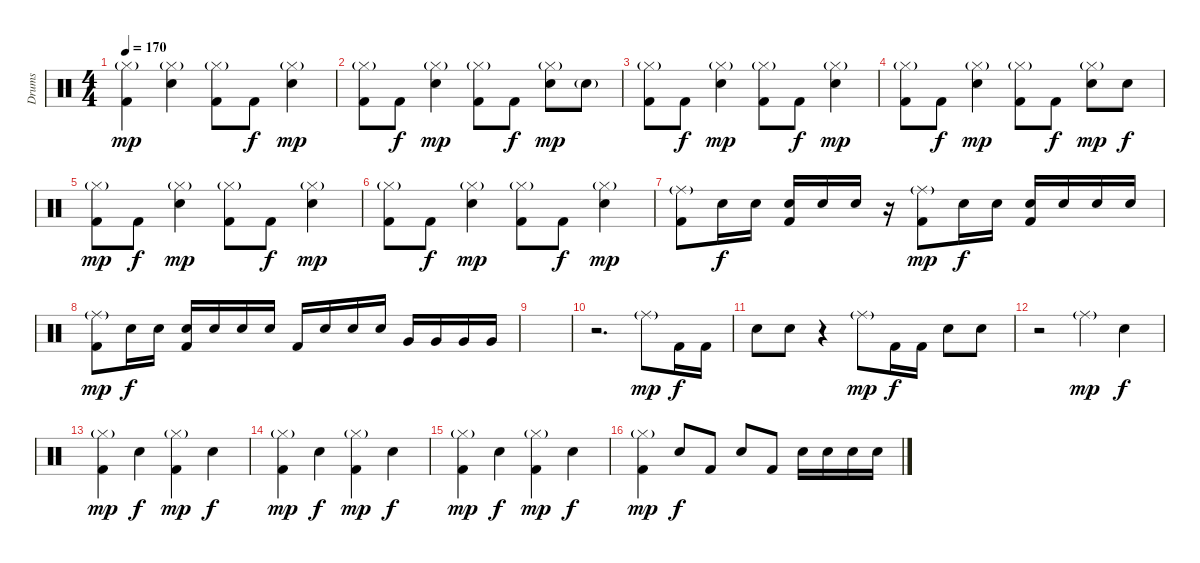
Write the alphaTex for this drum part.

\track ("Drums" "Drums") {instrument percussion}
\staff {score}
\articulation defaults
\ts (4 4)
\tempo 170
\clef neutral
\ks c
("Hi-Hat (closed)"{g} "Kick (hit) 2").4{dy mp} ("Hi-Hat (closed)"{g} "Electric Snare (hit)").4 ("Hi-Hat (closed)"{g} "Kick (hit) 2").8 "Kick (hit) 2".8{dy f} ("Hi-Hat (closed)"{g} "Electric Snare (hit)").4{dy mp} |
("Hi-Hat (closed)"{g} "Kick (hit) 2").8 "Kick (hit) 2".8{dy f} ("Hi-Hat (closed)"{g} "Electric Snare (hit)").4{dy mp} ("Hi-Hat (closed)"{g} "Kick (hit) 2").8 "Kick (hit) 2".8{dy f} ("Hi-Hat (closed)"{g} "Electric Snare (hit)").8{dy mp} "Electric Snare (hit)"{g}.8 |
("Hi-Hat (closed)"{g} "Kick (hit) 2").8 "Kick (hit) 2".8{dy f} ("Hi-Hat (closed)"{g} "Electric Snare (hit)").4{dy mp} ("Hi-Hat (closed)"{g} "Kick (hit) 2").8 "Kick (hit) 2".8{dy f} ("Hi-Hat (closed)"{g} "Electric Snare (hit)").4{dy mp} |
("Hi-Hat (closed)"{g} "Kick (hit) 2").8 "Kick (hit) 2".8{dy f} ("Hi-Hat (closed)"{g} "Electric Snare (hit)").4{dy mp} ("Hi-Hat (closed)"{g} "Kick (hit) 2").8 "Kick (hit) 2".8{dy f} ("Hi-Hat (closed)"{g} "Electric Snare (hit)").8{dy mp} "Electric Snare (hit)".8{dy f} |
("Hi-Hat (closed)"{g} "Kick (hit) 2").8{dy mp} "Kick (hit) 2".8{dy f} ("Hi-Hat (closed)"{g} "Electric Snare (hit)").4{dy mp} ("Hi-Hat (closed)"{g} "Kick (hit) 2").8 "Kick (hit) 2".8{dy f} ("Hi-Hat (closed)"{g} "Electric Snare (hit)").4{dy mp} |
("Hi-Hat (closed)"{g} "Kick (hit) 2").8 "Kick (hit) 2".8{dy f} ("Hi-Hat (closed)"{g} "Electric Snare (hit)").4{dy mp} ("Hi-Hat (closed)"{g} "Kick (hit) 2").8 "Kick (hit) 2".8{dy f} ("Hi-Hat (closed)"{g} "Electric Snare (hit)").4{dy mp} |
("Ride (middle)"{g} "Kick (hit) 2").8 "Electric Snare (hit)".16{dy f} "Electric Snare (hit)".16 ("Electric Snare (hit)" "Kick (hit) 2").16 "Electric Snare (hit)".16 "Electric Snare (hit)".16 r.16 ("Ride (middle)"{g} "Kick (hit) 2").8{dy mp} "Electric Snare (hit)".16{dy f} "Electric Snare (hit)".16 ("Electric Snare (hit)" "Kick (hit) 2").16 "Electric Snare (hit)".16 "Electric Snare (hit)".16 "Electric Snare (hit)".16 |
("Ride (middle)"{g} "Kick (hit) 2").8{dy mp} "Electric Snare (hit)".16{dy f} "Electric Snare (hit)".16 ("Electric Snare (hit)" "Kick (hit) 2").16 "Electric Snare (hit)".16 "Electric Snare (hit)".16 "Electric Snare (hit)".16 "Kick (hit) 2".16 "Electric Snare (hit)".16 "Electric Snare (hit)".16 "Electric Snare (hit)".16 "Very Low Tom (hit)".16 "Very Low Tom (hit)".16 "Very Low Tom (hit)".16 "Very Low Tom (hit)".16 |
|
r.2{d} "Ride (middle)"{g}.8{dy mp} "Kick (hit) 2".16{dy f} "Kick (hit) 2".16 |
"Electric Snare (hit)".8 "Electric Snare (hit)".8 r.4 "Ride (middle)"{g}.8{dy mp} "Kick (hit) 2".16{dy f} "Kick (hit) 2".16 "Electric Snare (hit)".8 "Electric Snare (hit)".8 |
r.2 "Ride (middle)"{g}.4{dy mp} "Electric Snare (hit)".4{dy f} |
("Hi-Hat (closed)"{g} "Kick (hit) 2").4{dy mp} "Electric Snare (hit)".4{dy f} ("Hi-Hat (closed)"{g} "Kick (hit) 2").4{dy mp} "Electric Snare (hit)".4{dy f} |
("Hi-Hat (closed)"{g} "Kick (hit) 2").4{dy mp} "Electric Snare (hit)".4{dy f} ("Hi-Hat (closed)"{g} "Kick (hit) 2").4{dy mp} "Electric Snare (hit)".4{dy f} |
("Hi-Hat (closed)"{g} "Kick (hit) 2").4{dy mp} "Electric Snare (hit)".4{dy f} ("Hi-Hat (closed)"{g} "Kick (hit) 2").4{dy mp} "Electric Snare (hit)".4{dy f} |
("Hi-Hat (closed)"{g} "Kick (hit) 2").4{dy mp} "Electric Snare (hit)".8{dy f} "Kick (hit) 2".8 "Electric Snare (hit)".8 "Kick (hit) 2".8 "Electric Snare (hit)".16 "Electric Snare (hit)".16 "Electric Snare (hit)".16 "Electric Snare (hit)".16
